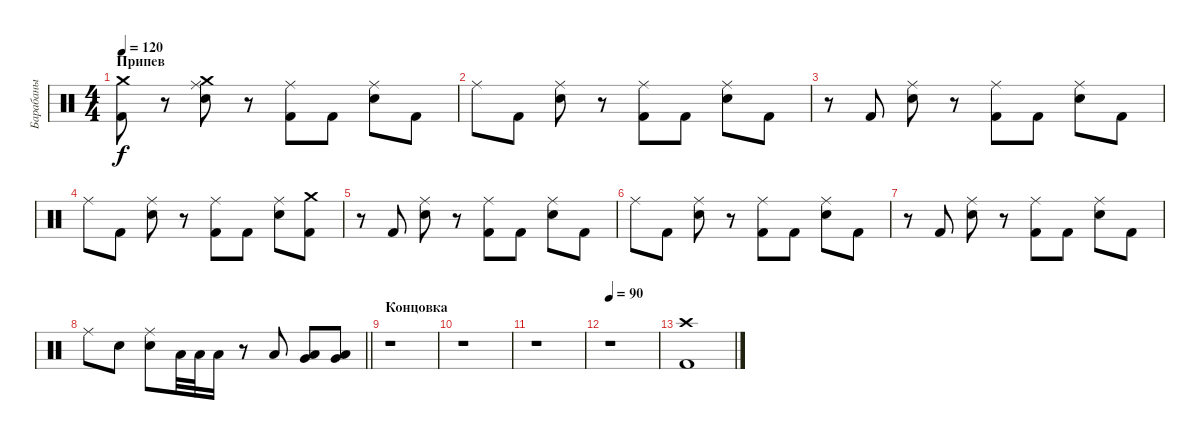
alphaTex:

\track ("Барабаны" "Барабаны") {instrument percussion}
\staff {score}
\articulation defaults
\ts (4 4)
\section ("" "Припев")
\tempo 120
\clef neutral
\ks c
("Kick (hit) 2"{t} "Crash medium (hit)"{t}).8{dy f} r.8 ("Ride (middle)" "Snare (hit) 2" "Crash medium (hit)").8 r.8 ("Ride (middle)" "Kick (hit) 2").8 "Kick (hit) 2".8 ("Ride (middle)" "Snare (hit) 2").8 "Kick (hit) 2".8 |
"Ride (middle)".8 "Kick (hit) 2".8 ("Ride (middle)" "Snare (hit) 2").8 r.8 ("Ride (middle)" "Kick (hit) 2").8 "Kick (hit) 2".8 ("Ride (middle)" "Snare (hit) 2").8 "Kick (hit) 2".8 |
r.8 "Kick (hit) 2".8 ("Ride (middle)" "Snare (hit) 2").8 r.8 ("Ride (middle)" "Kick (hit) 2").8 "Kick (hit) 2".8 ("Ride (middle)" "Snare (hit) 2").8 "Kick (hit) 2".8 |
"Ride (middle)".8 "Kick (hit) 2".8 ("Ride (middle)" "Snare (hit) 2").8 r.8 ("Ride (middle)" "Kick (hit) 2").8 "Kick (hit) 2".8 ("Ride (middle)" "Snare (hit) 2").8 ("Kick (hit) 2" "Crash medium (hit)").8 |
r.8 "Kick (hit) 2".8 ("Ride (middle)" "Snare (hit) 2").8 r.8 ("Ride (middle)" "Kick (hit) 2").8 "Kick (hit) 2".8 ("Ride (middle)" "Snare (hit) 2").8 "Kick (hit) 2".8 |
"Ride (middle)".8 "Kick (hit) 2".8 ("Ride (middle)" "Snare (hit) 2").8 r.8 ("Ride (middle)" "Kick (hit) 2").8 "Kick (hit) 2".8 ("Ride (middle)" "Snare (hit) 2").8 "Kick (hit) 2".8 |
r.8 "Kick (hit) 2".8 ("Ride (middle)" "Snare (hit) 2").8 r.8 ("Ride (middle)" "Kick (hit) 2").8 "Kick (hit) 2".8 ("Ride (middle)" "Snare (hit) 2").8 "Kick (hit) 2".8 |
\barLineRight lightlight "Ride (middle)".8 "Snare (hit) 2".8
("Ride (middle)" "Snare (hit) 2").8 "Low Tom (hit)".32 "Low Tom (hit)".32 "Low Tom (hit)".16 r.8 "Low Tom (hit)".8 ("Low Tom (hit)" "Very Low Tom (hit)").8 ("Low Tom (hit)" "Very Low Tom (hit)").8 |
\section ("" "Концовка")
r.1 |
r.1 |
r.1 |
\tempo 90
r.1 |
("Kick (hit) 2" "Crash high (hit)").1
